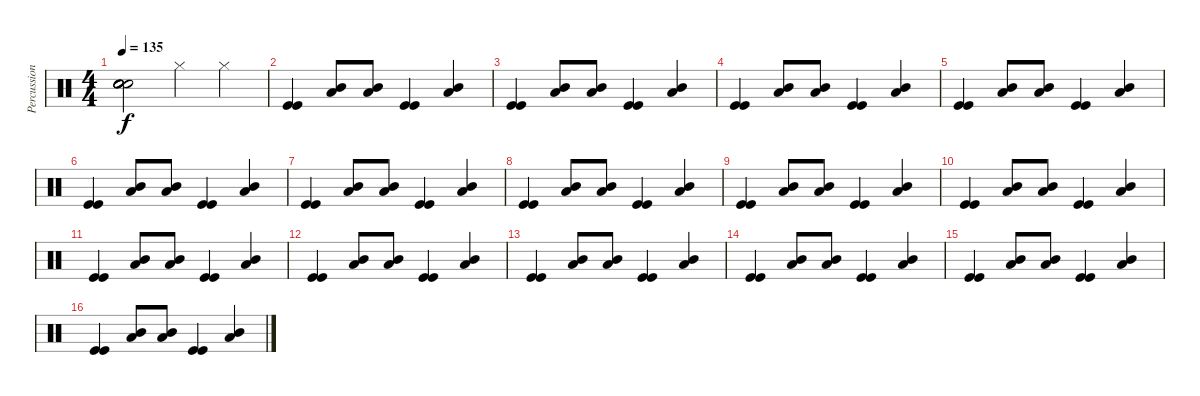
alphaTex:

\track ("Percussions" "Percussion") {instrument percussion}
\staff {score}
\articulation defaults
\ts (4 4)
\tempo 135
\clef neutral
\ks c
("Snare (hit)"{t} "Snare (hit)"{t} "Snare (hit)"{t} "Snare (hit)"{t} "Snare (hit)"{t}).2{dy f} "Hi-Hat (closed)".4 "Hi-Hat (closed)".4 |
("Kick (hit)" "Kick (hit)").4 ("Low Tom (hit)" "Mid Tom (hit)").8 ("Low Tom (hit)" "Mid Tom (hit)").8 ("Kick (hit)" "Kick (hit)").4 ("Low Tom (hit)" "Mid Tom (hit)").4 |
("Kick (hit)" "Kick (hit)").4 ("Low Tom (hit)" "Mid Tom (hit)").8 ("Low Tom (hit)" "Mid Tom (hit)").8 ("Kick (hit)" "Kick (hit)").4 ("Low Tom (hit)" "Mid Tom (hit)").4 |
("Kick (hit)" "Kick (hit)").4 ("Low Tom (hit)" "Mid Tom (hit)").8 ("Low Tom (hit)" "Mid Tom (hit)").8 ("Kick (hit)" "Kick (hit)").4 ("Low Tom (hit)" "Mid Tom (hit)").4 |
("Kick (hit)" "Kick (hit)").4 ("Low Tom (hit)" "Mid Tom (hit)").8 ("Low Tom (hit)" "Mid Tom (hit)").8 ("Kick (hit)" "Kick (hit)").4 ("Low Tom (hit)" "Mid Tom (hit)").4 |
("Kick (hit)" "Kick (hit)").4 ("Low Tom (hit)" "Mid Tom (hit)").8 ("Low Tom (hit)" "Mid Tom (hit)").8 ("Kick (hit)" "Kick (hit)").4 ("Low Tom (hit)" "Mid Tom (hit)").4 |
("Kick (hit)" "Kick (hit)").4 ("Low Tom (hit)" "Mid Tom (hit)").8 ("Low Tom (hit)" "Mid Tom (hit)").8 ("Kick (hit)" "Kick (hit)").4 ("Low Tom (hit)" "Mid Tom (hit)").4 |
("Kick (hit)" "Kick (hit)").4 ("Low Tom (hit)" "Mid Tom (hit)").8 ("Low Tom (hit)" "Mid Tom (hit)").8 ("Kick (hit)" "Kick (hit)").4 ("Low Tom (hit)" "Mid Tom (hit)").4 |
("Kick (hit)" "Kick (hit)").4 ("Low Tom (hit)" "Mid Tom (hit)").8 ("Low Tom (hit)" "Mid Tom (hit)").8 ("Kick (hit)" "Kick (hit)").4 ("Low Tom (hit)" "Mid Tom (hit)").4 |
("Kick (hit)" "Kick (hit)").4 ("Low Tom (hit)" "Mid Tom (hit)").8 ("Low Tom (hit)" "Mid Tom (hit)").8 ("Kick (hit)" "Kick (hit)").4 ("Low Tom (hit)" "Mid Tom (hit)").4 |
("Kick (hit)" "Kick (hit)").4 ("Low Tom (hit)" "Mid Tom (hit)").8 ("Low Tom (hit)" "Mid Tom (hit)").8 ("Kick (hit)" "Kick (hit)").4 ("Low Tom (hit)" "Mid Tom (hit)").4 |
("Kick (hit)" "Kick (hit)").4 ("Low Tom (hit)" "Mid Tom (hit)").8 ("Low Tom (hit)" "Mid Tom (hit)").8 ("Kick (hit)" "Kick (hit)").4 ("Low Tom (hit)" "Mid Tom (hit)").4 |
("Kick (hit)" "Kick (hit)").4 ("Low Tom (hit)" "Mid Tom (hit)").8 ("Low Tom (hit)" "Mid Tom (hit)").8 ("Kick (hit)" "Kick (hit)").4 ("Low Tom (hit)" "Mid Tom (hit)").4 |
("Kick (hit)" "Kick (hit)").4 ("Low Tom (hit)" "Mid Tom (hit)").8 ("Low Tom (hit)" "Mid Tom (hit)").8 ("Kick (hit)" "Kick (hit)").4 ("Low Tom (hit)" "Mid Tom (hit)").4 |
("Kick (hit)" "Kick (hit)").4 ("Low Tom (hit)" "Mid Tom (hit)").8 ("Low Tom (hit)" "Mid Tom (hit)").8 ("Kick (hit)" "Kick (hit)").4 ("Low Tom (hit)" "Mid Tom (hit)").4 |
("Kick (hit)" "Kick (hit)").4 ("Low Tom (hit)" "Mid Tom (hit)").8 ("Low Tom (hit)" "Mid Tom (hit)").8 ("Kick (hit)" "Kick (hit)").4 ("Low Tom (hit)" "Mid Tom (hit)").4
